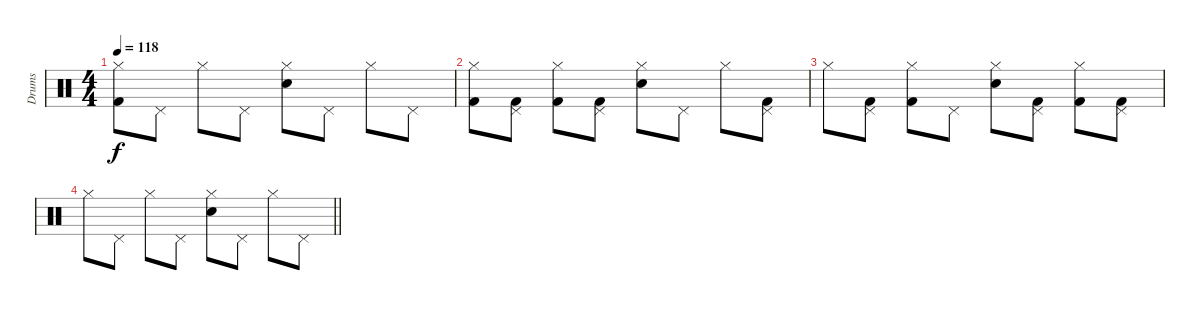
\track ("Drums" "Drums") {instrument percussion}
\staff {score}
\articulation defaults
\ts (4 4)
\tempo 118
\clef neutral
\ks c
("Hi-Hat (closed)" "Kick (hit) 2").8{dy f volume 0} "Pedal Hi-Hat (hit)".8 "Hi-Hat (closed)".8 "Pedal Hi-Hat (hit)".8 ("Hi-Hat (closed)" "Electric Snare (hit)").8 "Pedal Hi-Hat (hit)".8 "Hi-Hat (closed)".8 "Pedal Hi-Hat (hit)".8 |
("Hi-Hat (closed)" "Kick (hit) 2").8 ("Pedal Hi-Hat (hit)" "Kick (hit) 2").8 ("Hi-Hat (closed)" "Kick (hit) 2").8 ("Pedal Hi-Hat (hit)" "Kick (hit) 2").8 ("Hi-Hat (closed)" "Electric Snare (hit)").8 "Pedal Hi-Hat (hit)".8 "Hi-Hat (closed)".8 ("Pedal Hi-Hat (hit)" "Kick (hit) 2").8 |
"Hi-Hat (closed)".8 ("Pedal Hi-Hat (hit)" "Kick (hit) 2").8 ("Hi-Hat (closed)" "Kick (hit) 2").8 "Pedal Hi-Hat (hit)".8 ("Hi-Hat (closed)" "Electric Snare (hit)").8 ("Pedal Hi-Hat (hit)" "Kick (hit) 2").8 ("Hi-Hat (closed)" "Kick (hit) 2").8 ("Pedal Hi-Hat (hit)" "Kick (hit) 2").8 |
\barLineRight lightlight "Hi-Hat (closed)".8 "Pedal Hi-Hat (hit)".8 "Hi-Hat (closed)".8 "Pedal Hi-Hat (hit)".8
("Hi-Hat (closed)" "Electric Snare (hit)").8 "Pedal Hi-Hat (hit)".8 "Hi-Hat (closed)".8 "Pedal Hi-Hat (hit)".8
